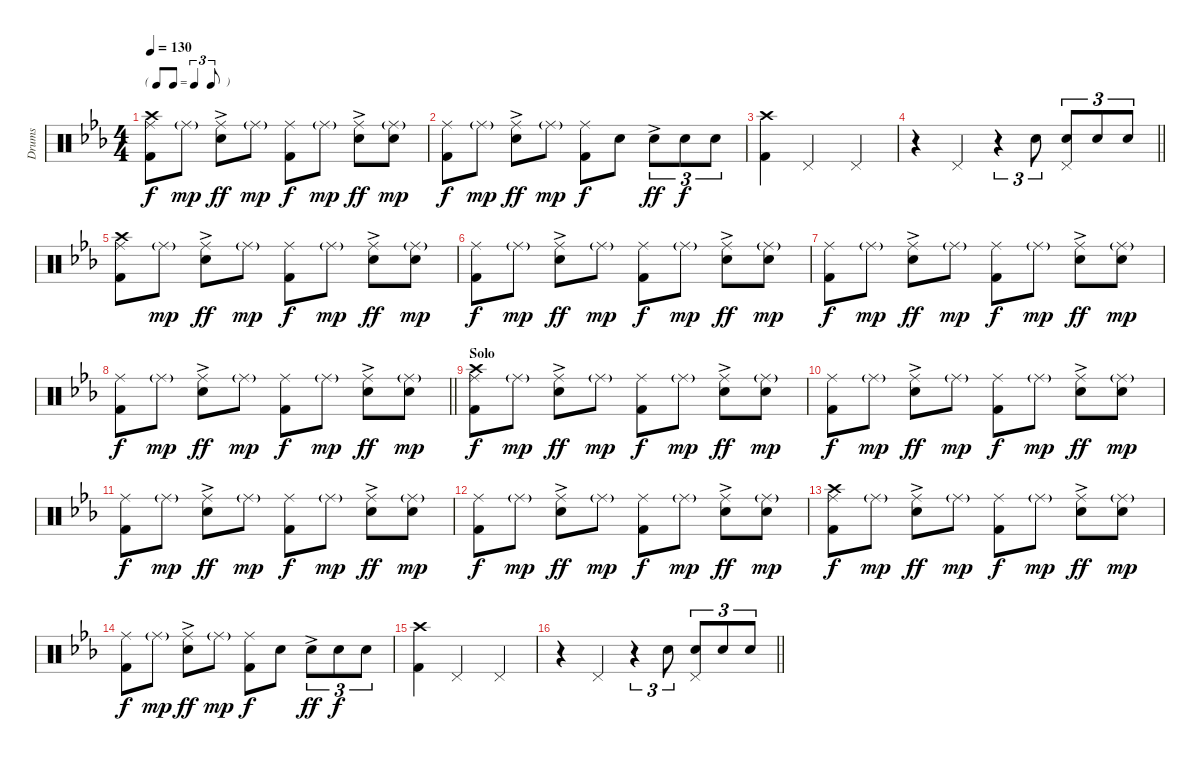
\track ("Drums" "Drums") {instrument percussion}
\staff {score}
\articulation defaults
\ts (4 4)
\tf triplet8th
\tempo 130
\clef neutral
\ks eb
("Ride (middle)" "Kick (hit) 2" "Crash high (hit)").8{dy f} "Ride (middle)"{g}.8{dy mp} ("Ride (middle)" "Electric Snare (hit)"{ac}).8{dy ff} "Ride (middle)"{g}.8{dy mp} ("Ride (middle)" "Kick (hit) 2").8{dy f} "Ride (middle)"{g}.8{dy mp} ("Ride (middle)" "Electric Snare (hit)"{ac}).8{dy ff} ("Ride (middle)"{g} "Electric Snare (hit)").8{dy mp} |
("Ride (middle)" "Kick (hit) 2").8{dy f} "Ride (middle)"{g}.8{dy mp} ("Ride (middle)" "Electric Snare (hit)"{ac}).8{dy ff} "Ride (middle)"{g}.8{dy mp} ("Ride (middle)" "Kick (hit) 2").8{dy f} "Electric Snare (hit)".8 "Electric Snare (hit)"{ac}.8{tu (3 2) dy ff} "Electric Snare (hit)".8{tu (3 2) dy f} "Electric Snare (hit)".8{tu (3 2)} |
("Kick (hit) 2" "Crash high (hit)").4 "Pedal Hi-Hat (hit)".2 "Pedal Hi-Hat (hit)".4 |
\barLineRight lightlight
r.4 "Pedal Hi-Hat (hit)".4 r.4{tu (3 2)} "Electric Snare (hit)".8{tu (3 2)} ("Pedal Hi-Hat (hit)" "Electric Snare (hit)").8{tu (3 2)} "Electric Snare (hit)".8{tu (3 2)} "Electric Snare (hit)".8{tu (3 2)} |
("Ride (middle)" "Kick (hit) 2" "Crash high (hit)").8 "Ride (middle)"{g}.8{dy mp} ("Ride (middle)" "Electric Snare (hit)"{ac}).8{dy ff} "Ride (middle)"{g}.8{dy mp} ("Ride (middle)" "Kick (hit) 2").8{dy f} "Ride (middle)"{g}.8{dy mp} ("Ride (middle)" "Electric Snare (hit)"{ac}).8{dy ff} ("Ride (middle)"{g} "Electric Snare (hit)").8{dy mp} |
("Ride (middle)" "Kick (hit) 2").8{dy f} "Ride (middle)"{g}.8{dy mp} ("Ride (middle)" "Electric Snare (hit)"{ac}).8{dy ff} "Ride (middle)"{g}.8{dy mp} ("Ride (middle)" "Kick (hit) 2").8{dy f} "Ride (middle)"{g}.8{dy mp} ("Ride (middle)" "Electric Snare (hit)"{ac}).8{dy ff} ("Ride (middle)"{g} "Electric Snare (hit)").8{dy mp} |
("Ride (middle)" "Kick (hit) 2").8{dy f} "Ride (middle)"{g}.8{dy mp} ("Ride (middle)" "Electric Snare (hit)"{ac}).8{dy ff} "Ride (middle)"{g}.8{dy mp} ("Ride (middle)" "Kick (hit) 2").8{dy f} "Ride (middle)"{g}.8{dy mp} ("Ride (middle)" "Electric Snare (hit)"{ac}).8{dy ff} ("Ride (middle)"{g} "Electric Snare (hit)").8{dy mp} |
\barLineRight lightlight
("Ride (middle)" "Kick (hit) 2").8{dy f} "Ride (middle)"{g}.8{dy mp} ("Ride (middle)" "Electric Snare (hit)"{ac}).8{dy ff} "Ride (middle)"{g}.8{dy mp} ("Ride (middle)" "Kick (hit) 2").8{dy f} "Ride (middle)"{g}.8{dy mp} ("Ride (middle)" "Electric Snare (hit)"{ac}).8{dy ff} ("Ride (middle)"{g} "Electric Snare (hit)").8{dy mp} |
\section ("" "Solo")
("Ride (middle)" "Kick (hit) 2" "Crash high (hit)").8{dy f} "Ride (middle)"{g}.8{dy mp} ("Ride (middle)" "Electric Snare (hit)"{ac}).8{dy ff} "Ride (middle)"{g}.8{dy mp} ("Ride (middle)" "Kick (hit) 2").8{dy f} "Ride (middle)"{g}.8{dy mp} ("Ride (middle)" "Electric Snare (hit)"{ac}).8{dy ff} ("Ride (middle)"{g} "Electric Snare (hit)").8{dy mp} |
("Ride (middle)" "Kick (hit) 2").8{dy f} "Ride (middle)"{g}.8{dy mp} ("Ride (middle)" "Electric Snare (hit)"{ac}).8{dy ff} "Ride (middle)"{g}.8{dy mp} ("Ride (middle)" "Kick (hit) 2").8{dy f} "Ride (middle)"{g}.8{dy mp} ("Ride (middle)" "Electric Snare (hit)"{ac}).8{dy ff} ("Ride (middle)"{g} "Electric Snare (hit)").8{dy mp} |
("Ride (middle)" "Kick (hit) 2").8{dy f} "Ride (middle)"{g}.8{dy mp} ("Ride (middle)" "Electric Snare (hit)"{ac}).8{dy ff} "Ride (middle)"{g}.8{dy mp} ("Ride (middle)" "Kick (hit) 2").8{dy f} "Ride (middle)"{g}.8{dy mp} ("Ride (middle)" "Electric Snare (hit)"{ac}).8{dy ff} ("Ride (middle)"{g} "Electric Snare (hit)").8{dy mp} |
("Ride (middle)" "Kick (hit) 2").8{dy f} "Ride (middle)"{g}.8{dy mp} ("Ride (middle)" "Electric Snare (hit)"{ac}).8{dy ff} "Ride (middle)"{g}.8{dy mp} ("Ride (middle)" "Kick (hit) 2").8{dy f} "Ride (middle)"{g}.8{dy mp} ("Ride (middle)" "Electric Snare (hit)"{ac}).8{dy ff} ("Ride (middle)"{g} "Electric Snare (hit)").8{dy mp} |
("Ride (middle)" "Kick (hit) 2" "Crash high (hit)").8{dy f} "Ride (middle)"{g}.8{dy mp} ("Ride (middle)" "Electric Snare (hit)"{ac}).8{dy ff} "Ride (middle)"{g}.8{dy mp} ("Ride (middle)" "Kick (hit) 2").8{dy f} "Ride (middle)"{g}.8{dy mp} ("Ride (middle)" "Electric Snare (hit)"{ac}).8{dy ff} ("Ride (middle)"{g} "Electric Snare (hit)").8{dy mp} |
("Ride (middle)" "Kick (hit) 2").8{dy f} "Ride (middle)"{g}.8{dy mp} ("Ride (middle)" "Electric Snare (hit)"{ac}).8{dy ff} "Ride (middle)"{g}.8{dy mp} ("Ride (middle)" "Kick (hit) 2").8{dy f} "Electric Snare (hit)".8 "Electric Snare (hit)"{ac}.8{tu (3 2) dy ff} "Electric Snare (hit)".8{tu (3 2) dy f} "Electric Snare (hit)".8{tu (3 2)} |
("Kick (hit) 2" "Crash high (hit)").4 "Pedal Hi-Hat (hit)".2 "Pedal Hi-Hat (hit)".4 |
\barLineRight lightlight
r.4 "Pedal Hi-Hat (hit)".4 r.4{tu (3 2)} "Electric Snare (hit)".8{tu (3 2)} ("Pedal Hi-Hat (hit)" "Electric Snare (hit)").8{tu (3 2)} "Electric Snare (hit)".8{tu (3 2)} "Electric Snare (hit)".8{tu (3 2)}
